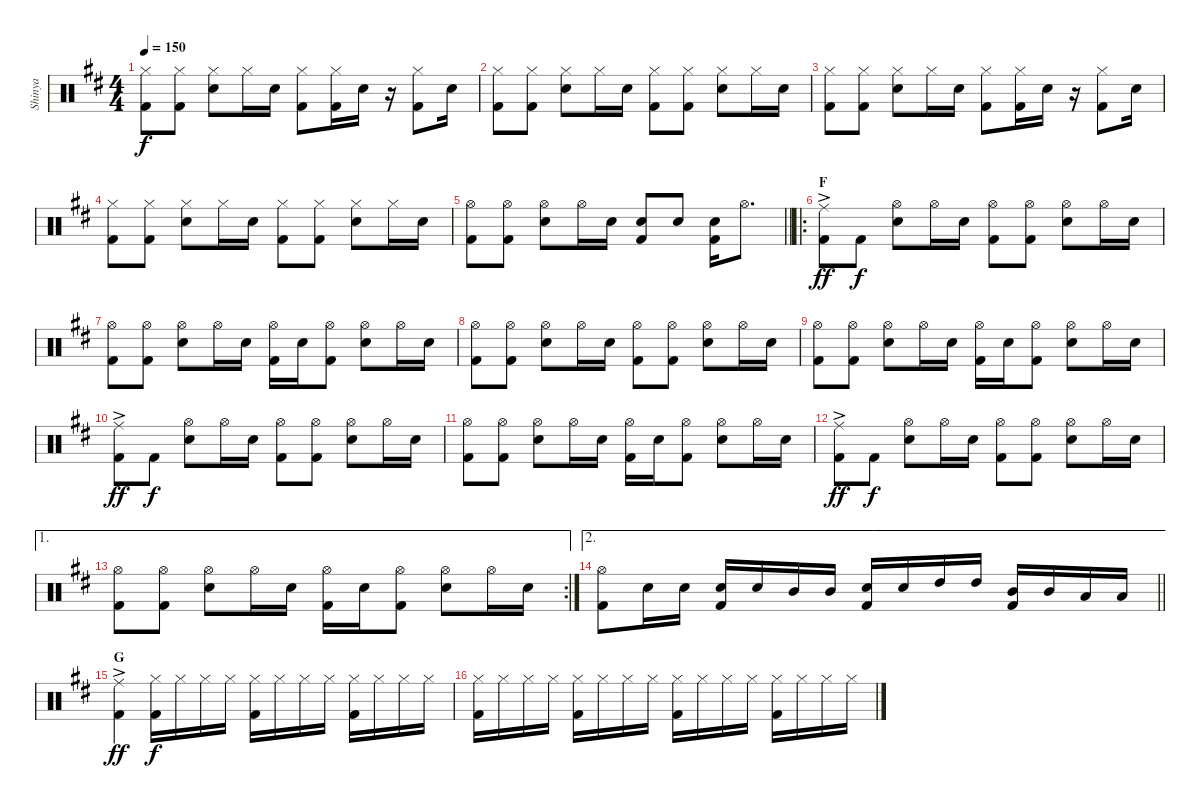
\track ("Shinya" "Shinya") {instrument percussion}
\staff {score}
\articulation defaults
\ts (4 4)
\tempo 150
\clef neutral
\ks d
("Hi-Hat (closed)" "Kick (hit) 2").8{dy f} ("Hi-Hat (closed)" "Kick (hit) 2").8 ("Hi-Hat (closed)" "Snare (hit) 2").8 "Hi-Hat (closed)".16 "Snare (hit) 2".16 ("Hi-Hat (closed)" "Kick (hit) 2").8 ("Hi-Hat (closed)" "Kick (hit) 2").16 "Snare (hit) 2".16 r.16 ("Hi-Hat (closed)" "Kick (hit) 2").8 "Snare (hit) 2".16 |
("Hi-Hat (closed)" "Kick (hit) 2").8 ("Hi-Hat (closed)" "Kick (hit) 2").8 ("Hi-Hat (closed)" "Snare (hit) 2").8 "Hi-Hat (closed)".16 "Snare (hit) 2".16 ("Hi-Hat (closed)" "Kick (hit) 2").8 ("Hi-Hat (closed)" "Kick (hit) 2").8 ("Hi-Hat (closed)" "Snare (hit) 2").8 "Hi-Hat (closed)".16 "Snare (hit) 2".16 |
("Hi-Hat (closed)" "Kick (hit) 2").8 ("Hi-Hat (closed)" "Kick (hit) 2").8 ("Hi-Hat (closed)" "Snare (hit) 2").8 "Hi-Hat (closed)".16 "Snare (hit) 2".16 ("Hi-Hat (closed)" "Kick (hit) 2").8 ("Hi-Hat (closed)" "Kick (hit) 2").16 "Snare (hit) 2".16 r.16 ("Hi-Hat (closed)" "Kick (hit) 2").8 "Snare (hit) 2".16 |
("Hi-Hat (closed)" "Kick (hit) 2").8 ("Hi-Hat (closed)" "Kick (hit) 2").8 ("Hi-Hat (closed)" "Snare (hit) 2").8 "Hi-Hat (closed)".16 "Snare (hit) 2".16 ("Hi-Hat (closed)" "Kick (hit) 2").8 ("Hi-Hat (closed)" "Kick (hit) 2").8 ("Hi-Hat (closed)" "Snare (hit) 2").8 "Hi-Hat (closed)".16 "Snare (hit) 2".16 |
\barLineRight lightlight
("Hi-Hat (open)" "Kick (hit) 2").8 ("Hi-Hat (open)" "Kick (hit) 2").8 ("Hi-Hat (open)" "Snare (hit) 2").8 "Hi-Hat (open)".16 "Snare (hit) 2".16 ("Snare (hit) 2" "Kick (hit) 2").8 "Snare (hit) 2".8 ("Snare (hit) 2" "Kick (hit) 2").16 "Hi-Hat (open)".8{d} |
\ro
\section ("" "F")
("Ride (middle)"{ac} "Kick (hit) 2").8{dy ff} "Kick (hit) 2".8{dy f} ("Hi-Hat (open)" "Snare (hit) 2").8 "Hi-Hat (open)".16 "Snare (hit) 2".16 ("Hi-Hat (open)" "Kick (hit) 2").8 ("Hi-Hat (open)" "Kick (hit) 2").8 ("Hi-Hat (open)" "Snare (hit) 2").8 "Hi-Hat (open)".16 "Snare (hit) 2".16 |
("Hi-Hat (open)" "Kick (hit) 2").8 ("Hi-Hat (open)" "Kick (hit) 2").8 ("Hi-Hat (open)" "Snare (hit) 2").8 "Hi-Hat (open)".16 "Snare (hit) 2".16 ("Hi-Hat (open)" "Kick (hit) 2").16 "Snare (hit) 2".16 ("Hi-Hat (open)" "Kick (hit) 2").8 ("Hi-Hat (open)" "Snare (hit) 2").8 "Hi-Hat (open)".16 "Snare (hit) 2".16 |
("Hi-Hat (open)" "Kick (hit) 2").8 ("Hi-Hat (open)" "Kick (hit) 2").8 ("Hi-Hat (open)" "Snare (hit) 2").8 "Hi-Hat (open)".16 "Snare (hit) 2".16 ("Hi-Hat (open)" "Kick (hit) 2").8 ("Hi-Hat (open)" "Kick (hit) 2").8 ("Hi-Hat (open)" "Snare (hit) 2").8 "Hi-Hat (open)".16 "Snare (hit) 2".16 |
("Hi-Hat (open)" "Kick (hit) 2").8 ("Hi-Hat (open)" "Kick (hit) 2").8 ("Hi-Hat (open)" "Snare (hit) 2").8 "Hi-Hat (open)".16 "Snare (hit) 2".16 ("Hi-Hat (open)" "Kick (hit) 2").16 "Snare (hit) 2".16 ("Hi-Hat (open)" "Kick (hit) 2").8 ("Hi-Hat (open)" "Snare (hit) 2").8 "Hi-Hat (open)".16 "Snare (hit) 2".16 |
("Ride (middle)"{ac} "Kick (hit) 2").8{dy ff} "Kick (hit) 2".8{dy f} ("Hi-Hat (open)" "Snare (hit) 2").8 "Hi-Hat (open)".16 "Snare (hit) 2".16 ("Hi-Hat (open)" "Kick (hit) 2").8 ("Hi-Hat (open)" "Kick (hit) 2").8 ("Hi-Hat (open)" "Snare (hit) 2").8 "Hi-Hat (open)".16 "Snare (hit) 2".16 |
("Hi-Hat (open)" "Kick (hit) 2").8 ("Hi-Hat (open)" "Kick (hit) 2").8 ("Hi-Hat (open)" "Snare (hit) 2").8 "Hi-Hat (open)".16 "Snare (hit) 2".16 ("Hi-Hat (open)" "Kick (hit) 2").16 "Snare (hit) 2".16 ("Hi-Hat (open)" "Kick (hit) 2").8 ("Hi-Hat (open)" "Snare (hit) 2").8 "Hi-Hat (open)".16 "Snare (hit) 2".16 |
("Ride (middle)"{ac} "Kick (hit) 2").8{dy ff} "Kick (hit) 2".8{dy f} ("Hi-Hat (open)" "Snare (hit) 2").8 "Hi-Hat (open)".16 "Snare (hit) 2".16 ("Hi-Hat (open)" "Kick (hit) 2").8 ("Hi-Hat (open)" "Kick (hit) 2").8 ("Hi-Hat (open)" "Snare (hit) 2").8 "Hi-Hat (open)".16 "Snare (hit) 2".16 |
\ae 1
\rc 2
("Hi-Hat (open)" "Kick (hit) 2").8 ("Hi-Hat (open)" "Kick (hit) 2").8 ("Hi-Hat (open)" "Snare (hit) 2").8 "Hi-Hat (open)".16 "Snare (hit) 2".16 ("Hi-Hat (open)" "Kick (hit) 2").16 "Snare (hit) 2".16 ("Hi-Hat (open)" "Kick (hit) 2").8 ("Hi-Hat (open)" "Snare (hit) 2").8 "Hi-Hat (open)".16 "Snare (hit) 2".16 |
\ae 2
\barLineRight lightlight
("Hi-Hat (open)" "Kick (hit) 2").8 "Snare (hit) 2".16 "Snare (hit) 2".16 ("Snare (hit) 2" "Kick (hit) 2").16 "Snare (hit) 2".16 "Mid Tom (hit)".16 "Mid Tom (hit)".16 ("Snare (hit) 2" "Kick (hit) 2").16 "Snare (hit) 2".16 "High Tom (hit)".16 "High Tom (hit)".16 ("Mid Tom (hit)" "Kick (hit) 2").16 "Mid Tom (hit)".16 "Low Tom (hit)".16 "Low Tom (hit)".16 |
\section ("" "G")
("Ride (middle)"{ac} "Kick (hit) 2").4{dy ff} ("Hi-Hat (closed)" "Kick (hit) 2").16{dy f} "Hi-Hat (closed)".16 "Hi-Hat (closed)".16 "Hi-Hat (closed)".16 ("Hi-Hat (closed)" "Kick (hit) 2").16 "Hi-Hat (closed)".16 "Hi-Hat (closed)".16 "Hi-Hat (closed)".16 ("Hi-Hat (closed)" "Kick (hit) 2").16 "Hi-Hat (closed)".16 "Hi-Hat (closed)".16 "Hi-Hat (closed)".16 |
("Hi-Hat (closed)" "Kick (hit) 2").16 "Hi-Hat (closed)".16 "Hi-Hat (closed)".16 "Hi-Hat (closed)".16 ("Hi-Hat (closed)" "Kick (hit) 2").16 "Hi-Hat (closed)".16 "Hi-Hat (closed)".16 "Hi-Hat (closed)".16 ("Hi-Hat (closed)" "Kick (hit) 2").16 "Hi-Hat (closed)".16 "Hi-Hat (closed)".16 "Hi-Hat (closed)".16 ("Hi-Hat (closed)" "Kick (hit) 2").16 "Hi-Hat (closed)".16 "Hi-Hat (closed)".16 "Hi-Hat (closed)".16
